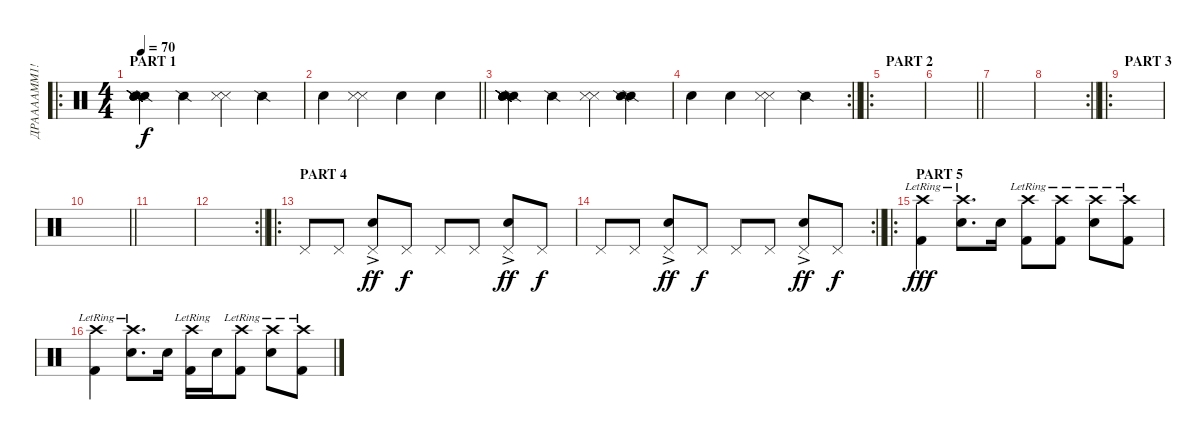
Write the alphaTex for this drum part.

\track ("ДРААААММ1!!11 \\m/" "ДРААААММ1!") {instrument percussion}
\staff {score}
\articulation defaults
\ro
\ts (4 4)
\section ("" "PART 1")
\tempo 70
\clef neutral
\ks c
("Snare (side stick) 2" "Snare (side stick) 2" "Snare (side stick) 2" "Snare (side stick) 2" "Snare (side stick) 2" "Snare (side stick) 2").4{dy f} "Snare (side stick) 2".4 ("Snare (side stick) 3" "Snare (side stick) 3").4 "Snare (side stick) 2".4 |
\barLineRight lightlight "Snare (hit) 2".4
("Snare (side stick) 3" "Snare (side stick) 3").4 "Snare (hit) 2".4 "Snare (hit) 2".4 |
("Snare (side stick) 2" "Snare (side stick) 2" "Snare (side stick) 2" "Snare (side stick) 2" "Snare (side stick) 2" "Snare (side stick) 2").4 "Snare (side stick) 2".4 ("Snare (side stick) 3" "Snare (side stick) 3").4 ("Snare (side stick) 2" "Snare (side stick) 2").4 |
\rc 2
\barLineRight lightlight "Snare (hit) 2".4 "Snare (hit) 2".4
("Snare (side stick) 3" "Snare (side stick) 3").4 "Snare (side stick) 2".4 |
\ro
\section ("" "PART 2")
|
\barLineRight lightlight
|
|
\rc 2
\barLineRight lightlight
|
\ro
\section ("" "PART 3")
|
\barLineRight lightlight
|
|
\rc 2
\barLineRight lightlight
|
\ro
\section ("" "PART 4")
"Pedal Hi-Hat (hit)".8 "Pedal Hi-Hat (hit)".8 ("Pedal Hi-Hat (hit)"{ac} "Electric Snare (hit)").8{dy ff} "Pedal Hi-Hat (hit)".8{dy f} "Pedal Hi-Hat (hit)".8 "Pedal Hi-Hat (hit)".8 ("Pedal Hi-Hat (hit)"{ac} "Electric Snare (hit)").8{dy ff} "Pedal Hi-Hat (hit)".8{dy f} |
\rc 2
\barLineRight lightlight "Pedal Hi-Hat (hit)".8 "Pedal Hi-Hat (hit)".8
("Pedal Hi-Hat (hit)"{ac} "Electric Snare (hit)").8{dy ff} "Pedal Hi-Hat (hit)".8{dy f} "Pedal Hi-Hat (hit)".8 "Pedal Hi-Hat (hit)".8 ("Pedal Hi-Hat (hit)"{ac} "Electric Snare (hit)").8{dy ff} "Pedal Hi-Hat (hit)".8{dy f} |
\ro
\section ("" "PART 5")
("Crash high (hit)"{lr} "Kick (hit) 2").4{dy fff} ("Crash high (hit)"{lr} "Snare (hit) 2").8{d} "Snare (hit) 2".16 ("Crash high (hit)"{lr} "Kick (hit) 2").8 ("Crash high (hit)"{lr} "Kick (hit) 2").8 ("Crash high (hit)"{lr} "Snare (hit) 2").8 ("Crash high (hit)"{lr} "Kick (hit) 2").8 |
("Crash high (hit)"{lr} "Kick (hit) 2").4 ("Crash high (hit)"{lr} "Snare (hit) 2").8{d} "Snare (hit) 2".16 ("Crash high (hit)"{lr} "Kick (hit) 2").16 "Snare (hit) 2".16 ("Crash high (hit)"{lr} "Kick (hit) 2").8 ("Crash high (hit)"{lr} "Snare (hit) 2").8 ("Crash high (hit)"{lr} "Kick (hit) 2").8
